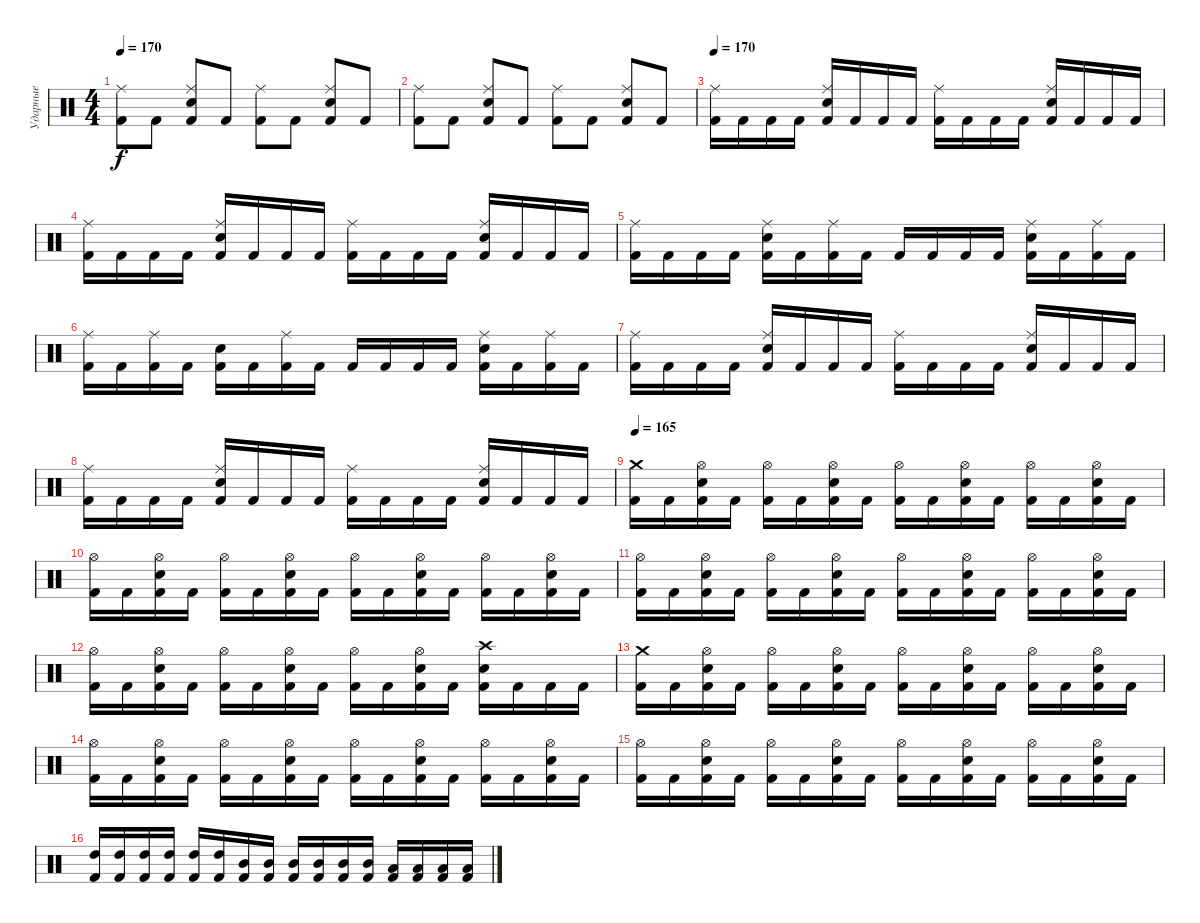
\track ("Ударные" "Ударные") {instrument percussion}
\staff {score}
\articulation defaults
\ts (4 4)
\tempo 170
\clef neutral
\ks c
("Kick (hit) 2" "Ride (middle)").8{dy f} "Kick (hit) 2".8 ("Kick (hit) 2" "Electric Snare (hit)" "Ride (middle)").8 "Kick (hit) 2".8 ("Kick (hit) 2" "Ride (middle)").8 "Kick (hit) 2".8 ("Kick (hit) 2" "Electric Snare (hit)" "Ride (middle)").8 "Kick (hit) 2".8 |
("Kick (hit) 2" "Ride (middle)").8 "Kick (hit) 2".8 ("Kick (hit) 2" "Electric Snare (hit)" "Ride (middle)").8 "Kick (hit) 2".8 ("Kick (hit) 2" "Ride (middle)").8 "Kick (hit) 2".8 ("Kick (hit) 2" "Electric Snare (hit)" "Ride (middle)").8 "Kick (hit) 2".8 |
\tempo 170
("Kick (hit) 2" "Ride (middle)").16 "Kick (hit) 2".16 "Kick (hit) 2".16 "Kick (hit) 2".16 ("Kick (hit) 2" "Electric Snare (hit)" "Ride (middle)").16 "Kick (hit) 2".16 "Kick (hit) 2".16 "Kick (hit) 2".16 ("Kick (hit) 2" "Ride (middle)").16 "Kick (hit) 2".16 "Kick (hit) 2".16 "Kick (hit) 2".16 ("Kick (hit) 2" "Electric Snare (hit)" "Ride (middle)").16 "Kick (hit) 2".16 "Kick (hit) 2".16 "Kick (hit) 2".16 |
("Kick (hit) 2" "Ride (middle)").16 "Kick (hit) 2".16 "Kick (hit) 2".16 "Kick (hit) 2".16 ("Kick (hit) 2" "Electric Snare (hit)" "Ride (middle)").16 "Kick (hit) 2".16 "Kick (hit) 2".16 "Kick (hit) 2".16 ("Kick (hit) 2" "Ride (middle)").16 "Kick (hit) 2".16 "Kick (hit) 2".16 "Kick (hit) 2".16 ("Kick (hit) 2" "Electric Snare (hit)" "Ride (middle)").16 "Kick (hit) 2".16 "Kick (hit) 2".16 "Kick (hit) 2".16 |
("Kick (hit) 2" "Ride (middle)").16 "Kick (hit) 2".16 "Kick (hit) 2".16 "Kick (hit) 2".16 ("Kick (hit) 2" "Electric Snare (hit)" "Ride (middle)").16 "Kick (hit) 2".16 ("Kick (hit) 2" "Ride (middle)").16 "Kick (hit) 2".16 "Kick (hit) 2".16 "Kick (hit) 2".16 "Kick (hit) 2".16 "Kick (hit) 2".16 ("Kick (hit) 2" "Electric Snare (hit)" "Ride (middle)").16 "Kick (hit) 2".16 ("Kick (hit) 2" "Ride (middle)").16 "Kick (hit) 2".16 |
("Kick (hit) 2" "Ride (middle)").16 "Kick (hit) 2".16 ("Kick (hit) 2" "Ride (middle)").16 "Kick (hit) 2".16 ("Kick (hit) 2" "Electric Snare (hit)").16 "Kick (hit) 2".16 ("Kick (hit) 2" "Ride (middle)").16 "Kick (hit) 2".16 "Kick (hit) 2".16 "Kick (hit) 2".16 "Kick (hit) 2".16 "Kick (hit) 2".16 ("Kick (hit) 2" "Electric Snare (hit)" "Ride (middle)").16 "Kick (hit) 2".16 ("Kick (hit) 2" "Ride (middle)").16 "Kick (hit) 2".16 |
("Kick (hit) 2" "Ride (middle)").16 "Kick (hit) 2".16 "Kick (hit) 2".16 "Kick (hit) 2".16 ("Kick (hit) 2" "Electric Snare (hit)" "Ride (middle)").16 "Kick (hit) 2".16 "Kick (hit) 2".16 "Kick (hit) 2".16 ("Kick (hit) 2" "Ride (middle)").16 "Kick (hit) 2".16 "Kick (hit) 2".16 "Kick (hit) 2".16 ("Kick (hit) 2" "Electric Snare (hit)" "Ride (middle)").16 "Kick (hit) 2".16 "Kick (hit) 2".16 "Kick (hit) 2".16 |
("Kick (hit) 2" "Ride (middle)").16 "Kick (hit) 2".16 "Kick (hit) 2".16 "Kick (hit) 2".16 ("Kick (hit) 2" "Electric Snare (hit)" "Ride (middle)").16 "Kick (hit) 2".16 "Kick (hit) 2".16 "Kick (hit) 2".16 ("Kick (hit) 2" "Ride (middle)").16 "Kick (hit) 2".16 "Kick (hit) 2".16 "Kick (hit) 2".16 ("Kick (hit) 2" "Electric Snare (hit)" "Ride (middle)").16 "Kick (hit) 2".16 "Kick (hit) 2".16 "Kick (hit) 2".16 |
\tempo 165
("Kick (hit) 2" "Crash medium (hit)").16 "Kick (hit) 2".16 ("Kick (hit) 2" "Electric Snare (hit)" "Hi-Hat (open)").16 "Kick (hit) 2".16 ("Kick (hit) 2" "Hi-Hat (open)").16 "Kick (hit) 2".16 ("Kick (hit) 2" "Electric Snare (hit)" "Hi-Hat (open)").16 "Kick (hit) 2".16 ("Kick (hit) 2" "Hi-Hat (open)").16 "Kick (hit) 2".16 ("Kick (hit) 2" "Electric Snare (hit)" "Hi-Hat (open)").16 "Kick (hit) 2".16 ("Kick (hit) 2" "Hi-Hat (open)").16 "Kick (hit) 2".16 ("Kick (hit) 2" "Electric Snare (hit)" "Hi-Hat (open)").16 "Kick (hit) 2".16 |
("Kick (hit) 2" "Hi-Hat (open)").16 "Kick (hit) 2".16 ("Kick (hit) 2" "Electric Snare (hit)" "Hi-Hat (open)").16 "Kick (hit) 2".16 ("Kick (hit) 2" "Hi-Hat (open)").16 "Kick (hit) 2".16 ("Kick (hit) 2" "Electric Snare (hit)" "Hi-Hat (open)").16 "Kick (hit) 2".16 ("Kick (hit) 2" "Hi-Hat (open)").16 "Kick (hit) 2".16 ("Kick (hit) 2" "Electric Snare (hit)" "Hi-Hat (open)").16 "Kick (hit) 2".16 ("Kick (hit) 2" "Hi-Hat (open)").16 "Kick (hit) 2".16 ("Kick (hit) 2" "Electric Snare (hit)" "Hi-Hat (open)").16 "Kick (hit) 2".16 |
("Kick (hit) 2" "Hi-Hat (open)").16 "Kick (hit) 2".16 ("Kick (hit) 2" "Electric Snare (hit)" "Hi-Hat (open)").16 "Kick (hit) 2".16 ("Kick (hit) 2" "Hi-Hat (open)").16 "Kick (hit) 2".16 ("Kick (hit) 2" "Electric Snare (hit)" "Hi-Hat (open)").16 "Kick (hit) 2".16 ("Kick (hit) 2" "Hi-Hat (open)").16 "Kick (hit) 2".16 ("Kick (hit) 2" "Electric Snare (hit)" "Hi-Hat (open)").16 "Kick (hit) 2".16 ("Kick (hit) 2" "Hi-Hat (open)").16 "Kick (hit) 2".16 ("Kick (hit) 2" "Electric Snare (hit)" "Hi-Hat (open)").16 "Kick (hit) 2".16 |
("Kick (hit) 2" "Hi-Hat (open)").16 "Kick (hit) 2".16 ("Kick (hit) 2" "Electric Snare (hit)" "Hi-Hat (open)").16 "Kick (hit) 2".16 ("Kick (hit) 2" "Hi-Hat (open)").16 "Kick (hit) 2".16 ("Kick (hit) 2" "Electric Snare (hit)" "Hi-Hat (open)").16 "Kick (hit) 2".16 ("Kick (hit) 2" "Hi-Hat (open)").16 "Kick (hit) 2".16 ("Kick (hit) 2" "Electric Snare (hit)" "Hi-Hat (open)").16 "Kick (hit) 2".16 ("Kick (hit) 2" "Electric Snare (hit)" "Crash high (hit)").16 "Kick (hit) 2".16 "Kick (hit) 2".16 "Kick (hit) 2".16 |
("Kick (hit) 2" "Crash medium (hit)").16 "Kick (hit) 2".16 ("Kick (hit) 2" "Electric Snare (hit)" "Hi-Hat (open)").16 "Kick (hit) 2".16 ("Kick (hit) 2" "Hi-Hat (open)").16 "Kick (hit) 2".16 ("Kick (hit) 2" "Electric Snare (hit)" "Hi-Hat (open)").16 "Kick (hit) 2".16 ("Kick (hit) 2" "Hi-Hat (open)").16 "Kick (hit) 2".16 ("Kick (hit) 2" "Electric Snare (hit)" "Hi-Hat (open)").16 "Kick (hit) 2".16 ("Kick (hit) 2" "Hi-Hat (open)").16 "Kick (hit) 2".16 ("Kick (hit) 2" "Electric Snare (hit)" "Hi-Hat (open)").16 "Kick (hit) 2".16 |
("Kick (hit) 2" "Hi-Hat (open)").16 "Kick (hit) 2".16 ("Kick (hit) 2" "Electric Snare (hit)" "Hi-Hat (open)").16 "Kick (hit) 2".16 ("Kick (hit) 2" "Hi-Hat (open)").16 "Kick (hit) 2".16 ("Kick (hit) 2" "Electric Snare (hit)" "Hi-Hat (open)").16 "Kick (hit) 2".16 ("Kick (hit) 2" "Hi-Hat (open)").16 "Kick (hit) 2".16 ("Kick (hit) 2" "Electric Snare (hit)" "Hi-Hat (open)").16 "Kick (hit) 2".16 ("Kick (hit) 2" "Hi-Hat (open)").16 "Kick (hit) 2".16 ("Kick (hit) 2" "Electric Snare (hit)" "Hi-Hat (open)").16 "Kick (hit) 2".16 |
("Kick (hit) 2" "Hi-Hat (open)").16 "Kick (hit) 2".16 ("Kick (hit) 2" "Electric Snare (hit)" "Hi-Hat (open)").16 "Kick (hit) 2".16 ("Kick (hit) 2" "Hi-Hat (open)").16 "Kick (hit) 2".16 ("Kick (hit) 2" "Electric Snare (hit)" "Hi-Hat (open)").16 "Kick (hit) 2".16 ("Kick (hit) 2" "Hi-Hat (open)").16 "Kick (hit) 2".16 ("Kick (hit) 2" "Electric Snare (hit)" "Hi-Hat (open)").16 "Kick (hit) 2".16 ("Kick (hit) 2" "Hi-Hat (open)").16 "Kick (hit) 2".16 ("Kick (hit) 2" "Electric Snare (hit)" "Hi-Hat (open)").16 "Kick (hit) 2".16 |
("Kick (hit) 2" "High Tom (hit)").16 ("Kick (hit) 2" "High Tom (hit)").16 ("Kick (hit) 2" "High Tom (hit)").16 ("Kick (hit) 2" "High Tom (hit)").16 ("Kick (hit) 2" "High Tom (hit)").16 ("Kick (hit) 2" "High Tom (hit)").16 ("Kick (hit) 2" "Mid Tom (hit)").16 ("Kick (hit) 2" "Mid Tom (hit)").16 ("Kick (hit) 2" "Mid Tom (hit)").16 ("Kick (hit) 2" "Mid Tom (hit)").16 ("Kick (hit) 2" "Mid Tom (hit)").16 ("Kick (hit) 2" "Mid Tom (hit)").16 ("Kick (hit) 2" "Low Tom (hit)").16 ("Kick (hit) 2" "Low Tom (hit)").16 ("Kick (hit) 2" "Low Tom (hit)").16 ("Kick (hit) 2" "Low Tom (hit)").16
